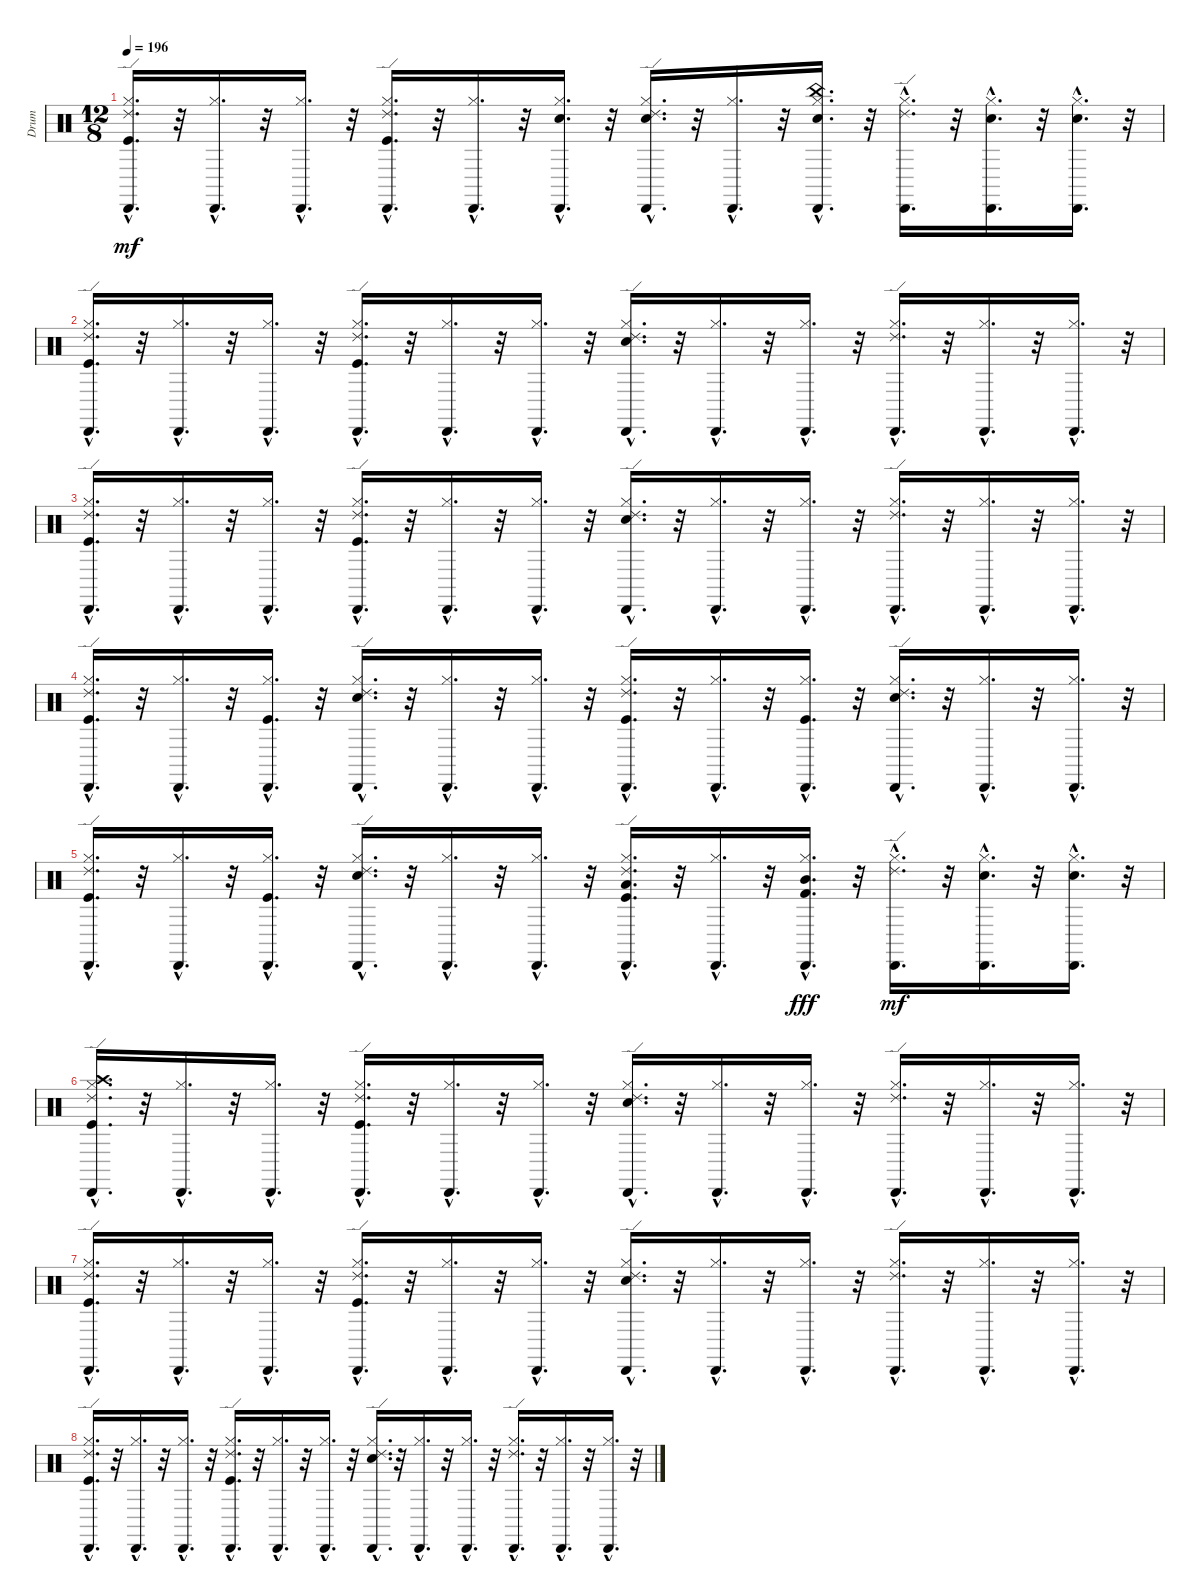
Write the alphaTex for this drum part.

\track ("Drum" "Drum") {instrument percussion}
\staff {score}
\articulation defaults
\ts (12 8)
\tempo 196
\clef neutral
\ks c
("Hi-Hat (closed)"{hac} "Kick (hit)"{hac} "Cabasa (hit)"{hac} "Ride (edge) 2"{hac}).16{d dy mf} r.32 ("Hi-Hat (closed)"{hac} "Cabasa (hit)"{hac}).16{d} r.32 ("Hi-Hat (closed)"{hac} "Cabasa (hit)"{hac}).16{d} r.32 ("Hi-Hat (closed)"{hac} "Kick (hit)"{hac} "Cabasa (hit)"{hac} "Ride (edge) 2"{hac}).16{d} r.32 ("Hi-Hat (closed)"{hac} "Cabasa (hit)"{hac}).16{d} r.32 ("Hi-Hat (closed)"{hac} "Cabasa (hit)"{hac} "Snare (hit) 2"{hac}).16{d} r.32 ("Hi-Hat (closed)"{hac} "Snare (hit) 2"{hac} "Cabasa (hit)"{hac} "Ride (edge) 2"{hac}).16{d} r.32 ("Hi-Hat (closed)"{hac} "Cabasa (hit)"{hac}).16{d} r.32 ("China (hit)"{hac} "Hi-Hat (closed)"{hac} "Cabasa (hit)"{hac} "Snare (hit) 2"{hac}).16{d} r.32 ("Hi-Hat (closed)"{hac} "Cabasa (hit)"{hac} "Ride (edge) 2"{hac}).16{d} r.32 ("Hi-Hat (closed)"{hac} "Cabasa (hit)"{hac} "Snare (hit) 2"{hac}).16{d} r.32 ("Hi-Hat (closed)"{hac} "Cabasa (hit)"{hac} "Snare (hit) 2"{hac}).16{d} r.32 |
("Ride (edge) 2"{hac} "Cabasa (hit)"{hac} "Kick (hit)"{hac} "Hi-Hat (closed)"{hac}).16{d} r.32 ("Cabasa (hit)"{hac} "Hi-Hat (closed)"{hac}).16{d} r.32 ("Cabasa (hit)"{hac} "Hi-Hat (closed)"{hac}).16{d} r.32 ("Ride (edge) 2"{hac} "Cabasa (hit)"{hac} "Kick (hit)"{hac} "Hi-Hat (closed)"{hac}).16{d} r.32 ("Cabasa (hit)"{hac} "Hi-Hat (closed)"{hac}).16{d} r.32 ("Cabasa (hit)"{hac} "Hi-Hat (closed)"{hac}).16{d} r.32 ("Ride (edge) 2"{hac} "Cabasa (hit)"{hac} "Snare (hit) 2"{hac} "Hi-Hat (closed)"{hac}).16{d} r.32 ("Cabasa (hit)"{hac} "Hi-Hat (closed)"{hac}).16{d} r.32 ("Cabasa (hit)"{hac} "Hi-Hat (closed)"{hac}).16{d} r.32 ("Ride (edge) 2"{hac} "Cabasa (hit)"{hac} "Hi-Hat (closed)"{hac}).16{d} r.32 ("Cabasa (hit)"{hac} "Hi-Hat (closed)"{hac}).16{d} r.32 ("Cabasa (hit)"{hac} "Hi-Hat (closed)"{hac}).16{d} r.32 |
("Hi-Hat (closed)"{hac} "Kick (hit)"{hac} "Cabasa (hit)"{hac} "Ride (edge) 2"{hac}).16{d} r.32 ("Hi-Hat (closed)"{hac} "Cabasa (hit)"{hac}).16{d} r.32 ("Hi-Hat (closed)"{hac} "Cabasa (hit)"{hac}).16{d} r.32 ("Hi-Hat (closed)"{hac} "Kick (hit)"{hac} "Cabasa (hit)"{hac} "Ride (edge) 2"{hac}).16{d} r.32 ("Hi-Hat (closed)"{hac} "Cabasa (hit)"{hac}).16{d} r.32 ("Hi-Hat (closed)"{hac} "Cabasa (hit)"{hac}).16{d} r.32 ("Hi-Hat (closed)"{hac} "Snare (hit) 2"{hac} "Cabasa (hit)"{hac} "Ride (edge) 2"{hac}).16{d} r.32 ("Hi-Hat (closed)"{hac} "Cabasa (hit)"{hac}).16{d} r.32 ("Hi-Hat (closed)"{hac} "Cabasa (hit)"{hac}).16{d} r.32 ("Hi-Hat (closed)"{hac} "Cabasa (hit)"{hac} "Ride (edge) 2"{hac}).16{d} r.32 ("Hi-Hat (closed)"{hac} "Cabasa (hit)"{hac}).16{d} r.32 ("Hi-Hat (closed)"{hac} "Cabasa (hit)"{hac}).16{d} r.32 |
("Cabasa (hit)"{hac} "Kick (hit)"{hac} "Ride (edge) 2"{hac} "Hi-Hat (closed)"{hac}).16{d} r.32 ("Hi-Hat (closed)"{hac} "Cabasa (hit)"{hac}).16{d} r.32 ("Kick (hit)"{hac} "Hi-Hat (closed)"{hac} "Cabasa (hit)"{hac}).16{d} r.32 ("Snare (hit) 2"{hac} "Hi-Hat (closed)"{hac} "Ride (edge) 2"{hac} "Cabasa (hit)"{hac}).16{d} r.32 ("Hi-Hat (closed)"{hac} "Cabasa (hit)"{hac}).16{d} r.32 ("Hi-Hat (closed)"{hac} "Cabasa (hit)"{hac}).16{d} r.32 ("Kick (hit)"{hac} "Ride (edge) 2"{hac} "Hi-Hat (closed)"{hac} "Cabasa (hit)"{hac}).16{d} r.32 ("Cabasa (hit)"{hac} "Hi-Hat (closed)"{hac}).16{d} r.32 ("Kick (hit)"{hac} "Hi-Hat (closed)"{hac} "Cabasa (hit)"{hac}).16{d} r.32 ("Snare (hit) 2"{hac} "Hi-Hat (closed)"{hac} "Cabasa (hit)"{hac} "Ride (edge) 2"{hac}).16{d} r.32 ("Hi-Hat (closed)"{hac} "Cabasa (hit)"{hac}).16{d} r.32 ("Cabasa (hit)"{hac} "Hi-Hat (closed)"{hac}).16{d} r.32 |
("Kick (hit)"{hac} "Ride (edge) 2"{hac} "Hi-Hat (closed)"{hac} "Cabasa (hit)"{hac}).16{d} r.32 ("Cabasa (hit)"{hac} "Hi-Hat (closed)"{hac}).16{d} r.32 ("Kick (hit)"{hac} "Hi-Hat (closed)"{hac} "Cabasa (hit)"{hac}).16{d} r.32 ("Hi-Hat (closed)"{hac} "Cabasa (hit)"{hac} "Snare (hit) 2"{hac} "Ride (edge) 2"{hac}).16{d} r.32 ("Cabasa (hit)"{hac} "Hi-Hat (closed)"{hac}).16{d} r.32 ("Hi-Hat (closed)"{hac} "Cabasa (hit)"{hac}).16{d} r.32 ("Hi-Hat (closed)"{hac} "Cabasa (hit)"{hac} "Low Tom (hit)"{hac} "Kick (hit)"{hac} "Ride (edge) 2"{hac}).16{d} r.32 ("Cabasa (hit)"{hac} "Hi-Hat (closed)"{hac}).16{d} r.32 ("Hi-Hat (closed)"{hac} "Cabasa (hit)"{hac} "Kick (hit) 2"{hac} "Mid Tom (hit)"{hac}).16{d dy fff} r.32 ("Hi-Hat (closed)"{hac} "Cabasa (hit)"{hac} "Ride (edge) 2"{hac}).16{d dy mf} r.32 ("Snare (hit) 2"{hac} "Cabasa (hit)"{hac} "Hi-Hat (closed)"{hac}).16{d} r.32 ("Cabasa (hit)"{hac} "Snare (hit) 2"{hac} "Hi-Hat (closed)"{hac}).16{d} r.32 |
("Crash high (hit)"{hac} "Kick (hit)"{hac} "Cabasa (hit)"{hac} "Hi-Hat (closed)"{hac} "Ride (edge) 2"{hac}).16{d} r.32 ("Hi-Hat (closed)"{hac} "Cabasa (hit)"{hac}).16{d} r.32 ("Hi-Hat (closed)"{hac} "Cabasa (hit)"{hac}).16{d} r.32 ("Ride (edge) 2"{hac} "Hi-Hat (closed)"{hac} "Kick (hit)"{hac} "Cabasa (hit)"{hac}).16{d} r.32 ("Hi-Hat (closed)"{hac} "Cabasa (hit)"{hac}).16{d} r.32 ("Hi-Hat (closed)"{hac} "Cabasa (hit)"{hac}).16{d} r.32 ("Hi-Hat (closed)"{hac} "Snare (hit) 2"{hac} "Ride (edge) 2"{hac} "Cabasa (hit)"{hac}).16{d} r.32 ("Cabasa (hit)"{hac} "Hi-Hat (closed)"{hac}).16{d} r.32 ("Hi-Hat (closed)"{hac} "Cabasa (hit)"{hac}).16{d} r.32 ("Ride (edge) 2"{hac} "Hi-Hat (closed)"{hac} "Cabasa (hit)"{hac}).16{d} r.32 ("Hi-Hat (closed)"{hac} "Cabasa (hit)"{hac}).16{d} r.32 ("Cabasa (hit)"{hac} "Hi-Hat (closed)"{hac}).16{d} r.32 |
("Ride (edge) 2"{hac} "Cabasa (hit)"{hac} "Kick (hit)"{hac} "Hi-Hat (closed)"{hac}).16{d} r.32 ("Cabasa (hit)"{hac} "Hi-Hat (closed)"{hac}).16{d} r.32 ("Cabasa (hit)"{hac} "Hi-Hat (closed)"{hac}).16{d} r.32 ("Ride (edge) 2"{hac} "Cabasa (hit)"{hac} "Kick (hit)"{hac} "Hi-Hat (closed)"{hac}).16{d} r.32 ("Cabasa (hit)"{hac} "Hi-Hat (closed)"{hac}).16{d} r.32 ("Cabasa (hit)"{hac} "Hi-Hat (closed)"{hac}).16{d} r.32 ("Ride (edge) 2"{hac} "Cabasa (hit)"{hac} "Snare (hit) 2"{hac} "Hi-Hat (closed)"{hac}).16{d} r.32 ("Cabasa (hit)"{hac} "Hi-Hat (closed)"{hac}).16{d} r.32 ("Cabasa (hit)"{hac} "Hi-Hat (closed)"{hac}).16{d} r.32 ("Ride (edge) 2"{hac} "Cabasa (hit)"{hac} "Hi-Hat (closed)"{hac}).16{d} r.32 ("Cabasa (hit)"{hac} "Hi-Hat (closed)"{hac}).16{d} r.32 ("Cabasa (hit)"{hac} "Hi-Hat (closed)"{hac}).16{d} r.32 |
("Kick (hit)"{hac} "Hi-Hat (closed)"{hac} "Cabasa (hit)"{hac} "Ride (edge) 2"{hac}).16{d} r.32 ("Hi-Hat (closed)"{hac} "Cabasa (hit)"{hac}).16{d} r.32 ("Cabasa (hit)"{hac} "Hi-Hat (closed)"{hac}).16{d} r.32 ("Kick (hit)"{hac} "Cabasa (hit)"{hac} "Ride (edge) 2"{hac} "Hi-Hat (closed)"{hac}).16{d} r.32 ("Cabasa (hit)"{hac} "Hi-Hat (closed)"{hac}).16{d} r.32 ("Hi-Hat (closed)"{hac} "Cabasa (hit)"{hac}).16{d} r.32 ("Ride (edge) 2"{hac} "Cabasa (hit)"{hac} "Hi-Hat (closed)"{hac} "Snare (hit) 2"{hac}).16{d} r.32 ("Hi-Hat (closed)"{hac} "Cabasa (hit)"{hac}).16{d} r.32 ("Hi-Hat (closed)"{hac} "Cabasa (hit)"{hac}).16{d} r.32 ("Hi-Hat (closed)"{hac} "Ride (edge) 2"{hac} "Cabasa (hit)"{hac}).16{d} r.32 ("Hi-Hat (closed)"{hac} "Cabasa (hit)"{hac}).16{d} r.32 ("Hi-Hat (closed)"{hac} "Cabasa (hit)"{hac}).16{d} r.32
